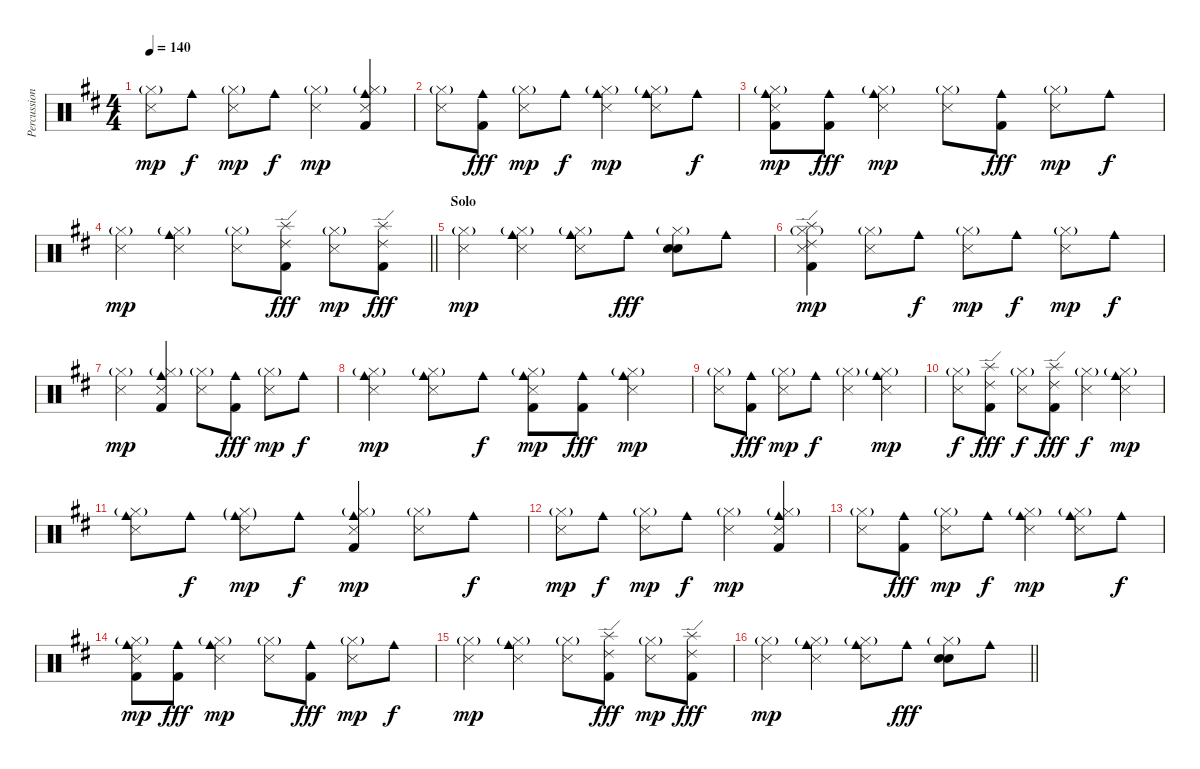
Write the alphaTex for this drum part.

\track ("Percussions" "Percussion") {instrument percussion}
\staff {score}
\articulation defaults
\ts (4 4)
\tempo 140
\clef neutral
\ks d
("Snare (side stick) 3" "Hi-Hat (closed)"{g}).8{dy mp} "Cowbell medium (hit)".8{dy f} ("Snare (side stick) 3" "Hi-Hat (closed)"{g}).8{dy mp} "Cowbell medium (hit)".8{dy f} ("Snare (side stick) 3" "Hi-Hat (closed)"{g}).4{dy mp} ("Cowbell medium (hit)" "Snare (side stick) 3" "Kick (hit) 2" "Hi-Hat (closed)"{g}).4 |
("Snare (side stick) 3" "Hi-Hat (closed)"{g}).8 ("Cowbell medium (hit)" "Kick (hit) 2").8{dy fff} ("Snare (side stick) 3" "Hi-Hat (closed)"{g}).8{dy mp} "Cowbell medium (hit)".8{dy f} ("Cowbell medium (hit)" "Snare (side stick) 3" "Hi-Hat (closed)"{g}).4{dy mp} ("Cowbell medium (hit)" "Snare (side stick) 3" "Hi-Hat (closed)"{g}).8 "Cowbell medium (hit)".8{dy f} |
("Cowbell medium (hit)" "Snare (side stick) 3" "Kick (hit) 2" "Hi-Hat (closed)"{g}).8{dy mp} ("Cowbell medium (hit)" "Kick (hit) 2").8{dy fff} ("Cowbell medium (hit)" "Snare (side stick) 3" "Hi-Hat (closed)"{g}).4{dy mp} ("Snare (side stick) 3" "Hi-Hat (closed)"{g}).8 ("Cowbell medium (hit)" "Kick (hit) 2").8{dy fff} ("Snare (side stick) 3" "Hi-Hat (closed)"{g}).8{dy mp} "Cowbell medium (hit)".8{dy f} |
\barLineRight lightlight
("Snare (side stick) 3" "Hi-Hat (closed)"{g}).4{dy mp} ("Cowbell medium (hit)" "Snare (side stick) 3" "Hi-Hat (closed)"{g}).4 ("Snare (side stick) 3" "Hi-Hat (closed)"{g}).8 ("Ride (edge) 2" "Splash (hit)" "Kick (hit) 2").8{dy fff} ("Snare (side stick) 3" "Hi-Hat (closed)"{g}).8{dy mp} ("Ride (edge) 2" "Splash (hit)" "Kick (hit) 2").8{dy fff} |
\section ("" "Solo")
("Snare (side stick) 3" "Hi-Hat (closed)"{g}).4{dy mp} ("Cowbell medium (hit)" "Snare (side stick) 3" "Hi-Hat (closed)"{g}).4 ("Cowbell medium (hit)" "Snare (side stick) 3" "Hi-Hat (closed)"{g}).8 "Cowbell medium (hit)".8{dy fff} ("Electric Snare (hit)" "Snare (hit) 2" "Hi-Hat (closed)"{g}).8 "Cowbell medium (hit)".8 |
("Splash (hit)" "Ride (edge) 2" "Snare (side stick) 3" "Kick (hit) 2" "Hi-Hat (closed)"{g}).4{dy mp} ("Snare (side stick) 3" "Hi-Hat (closed)"{g}).8 "Cowbell medium (hit)".8{dy f} ("Snare (side stick) 3" "Hi-Hat (closed)"{g}).8{dy mp} "Cowbell medium (hit)".8{dy f} ("Snare (side stick) 3" "Hi-Hat (closed)"{g}).8{dy mp} "Cowbell medium (hit)".8{dy f} |
("Snare (side stick) 3" "Hi-Hat (closed)"{g}).4{dy mp} ("Cowbell medium (hit)" "Snare (side stick) 3" "Kick (hit) 2" "Hi-Hat (closed)"{g}).4 ("Snare (side stick) 3" "Hi-Hat (closed)"{g}).8 ("Cowbell medium (hit)" "Kick (hit) 2").8{dy fff} ("Snare (side stick) 3" "Hi-Hat (closed)"{g}).8{dy mp} "Cowbell medium (hit)".8{dy f} |
("Cowbell medium (hit)" "Snare (side stick) 3" "Hi-Hat (closed)"{g}).4{dy mp} ("Cowbell medium (hit)" "Snare (side stick) 3" "Hi-Hat (closed)"{g}).8 "Cowbell medium (hit)".8{dy f} ("Cowbell medium (hit)" "Snare (side stick) 3" "Kick (hit) 2" "Hi-Hat (closed)"{g}).8{dy mp} ("Cowbell medium (hit)" "Kick (hit) 2").8{dy fff} ("Cowbell medium (hit)" "Snare (side stick) 3" "Hi-Hat (closed)"{g}).4{dy mp} |
("Snare (side stick) 3" "Hi-Hat (closed)"{g}).8 ("Cowbell medium (hit)" "Kick (hit) 2").8{dy fff} ("Snare (side stick) 3" "Hi-Hat (closed)"{g}).8{dy mp} "Cowbell medium (hit)".8{dy f} ("Snare (side stick) 3" "Hi-Hat (closed)"{g}).4 ("Cowbell medium (hit)" "Snare (side stick) 3" "Hi-Hat (closed)"{g}).4{dy mp} |
("Snare (side stick) 3" "Hi-Hat (closed)"{g}).8{dy f} ("Ride (edge) 2" "Splash (hit)" "Kick (hit) 2").8{dy fff} ("Snare (side stick) 3" "Hi-Hat (closed)"{g}).8{dy f} ("Ride (edge) 2" "Splash (hit)" "Kick (hit) 2").8{dy fff} ("Snare (side stick) 3" "Hi-Hat (closed)"{g}).4{dy f} ("Cowbell medium (hit)" "Snare (side stick) 3" "Hi-Hat (closed)"{g}).4{dy mp} |
("Cowbell medium (hit)" "Snare (side stick) 3" "Hi-Hat (closed)"{g}).8 "Cowbell medium (hit)".8{dy f} ("Cowbell medium (hit)"{g} "Snare (side stick) 3" "Hi-Hat (closed)"{g}).8{dy mp} "Cowbell medium (hit)".8{dy f} ("Cowbell medium (hit)" "Snare (side stick) 3" "Kick (hit) 2" "Hi-Hat (closed)"{g}).4{dy mp} ("Snare (side stick) 3" "Hi-Hat (closed)"{g}).8 "Cowbell medium (hit)".8{dy f} |
("Snare (side stick) 3" "Hi-Hat (closed)"{g}).8{dy mp} "Cowbell medium (hit)".8{dy f} ("Snare (side stick) 3" "Hi-Hat (closed)"{g}).8{dy mp} "Cowbell medium (hit)".8{dy f} ("Snare (side stick) 3" "Hi-Hat (closed)"{g}).4{dy mp} ("Cowbell medium (hit)" "Snare (side stick) 3" "Kick (hit) 2" "Hi-Hat (closed)"{g}).4 |
("Snare (side stick) 3" "Hi-Hat (closed)"{g}).8 ("Cowbell medium (hit)" "Kick (hit) 2").8{dy fff} ("Snare (side stick) 3" "Hi-Hat (closed)"{g}).8{dy mp} "Cowbell medium (hit)".8{dy f} ("Cowbell medium (hit)" "Snare (side stick) 3" "Hi-Hat (closed)"{g}).4{dy mp} ("Cowbell medium (hit)" "Snare (side stick) 3" "Hi-Hat (closed)"{g}).8 "Cowbell medium (hit)".8{dy f} |
("Cowbell medium (hit)" "Snare (side stick) 3" "Kick (hit) 2" "Hi-Hat (closed)"{g}).8{dy mp} ("Cowbell medium (hit)" "Kick (hit) 2").8{dy fff} ("Cowbell medium (hit)" "Snare (side stick) 3" "Hi-Hat (closed)"{g}).4{dy mp} ("Snare (side stick) 3" "Hi-Hat (closed)"{g}).8 ("Cowbell medium (hit)" "Kick (hit) 2").8{dy fff} ("Snare (side stick) 3" "Hi-Hat (closed)"{g}).8{dy mp} "Cowbell medium (hit)".8{dy f} |
("Snare (side stick) 3" "Hi-Hat (closed)"{g}).4{dy mp} ("Cowbell medium (hit)" "Snare (side stick) 3" "Hi-Hat (closed)"{g}).4 ("Snare (side stick) 3" "Hi-Hat (closed)"{g}).8 ("Ride (edge) 2" "Splash (hit)" "Kick (hit) 2").8{dy fff} ("Snare (side stick) 3" "Hi-Hat (closed)"{g}).8{dy mp} ("Ride (edge) 2" "Splash (hit)" "Kick (hit) 2").8{dy fff} |
\barLineRight lightlight
("Snare (side stick) 3" "Hi-Hat (closed)"{g}).4{dy mp} ("Cowbell medium (hit)" "Snare (side stick) 3" "Hi-Hat (closed)"{g}).4 ("Cowbell medium (hit)" "Snare (side stick) 3" "Hi-Hat (closed)"{g}).8 "Cowbell medium (hit)".8{dy fff} ("Electric Snare (hit)" "Snare (hit) 2" "Hi-Hat (closed)"{g}).8 "Cowbell medium (hit)".8
